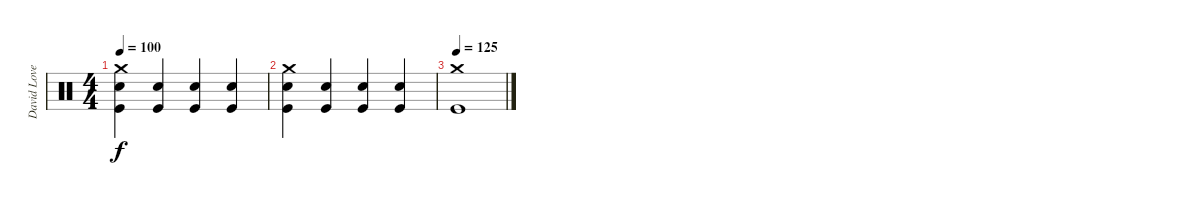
\track ("David Lovering" "David Love") {instrument percussion}
\staff {score}
\articulation defaults
\ts (4 4)
\tempo 100
\clef neutral
\ks c
("Crash medium (hit)" "Snare (hit) 2" "Kick (hit)").4{dy f} ("Snare (hit) 2" "Kick (hit)").4 ("Snare (hit) 2" "Kick (hit)").4 ("Snare (hit) 2" "Kick (hit)").4 |
("Crash medium (hit)" "Snare (hit) 2" "Kick (hit)").4 ("Snare (hit) 2" "Kick (hit)").4 ("Snare (hit) 2" "Kick (hit)").4 ("Snare (hit) 2" "Kick (hit)").4 |
\tempo 125
("Crash medium (hit)" "Kick (hit)").1
